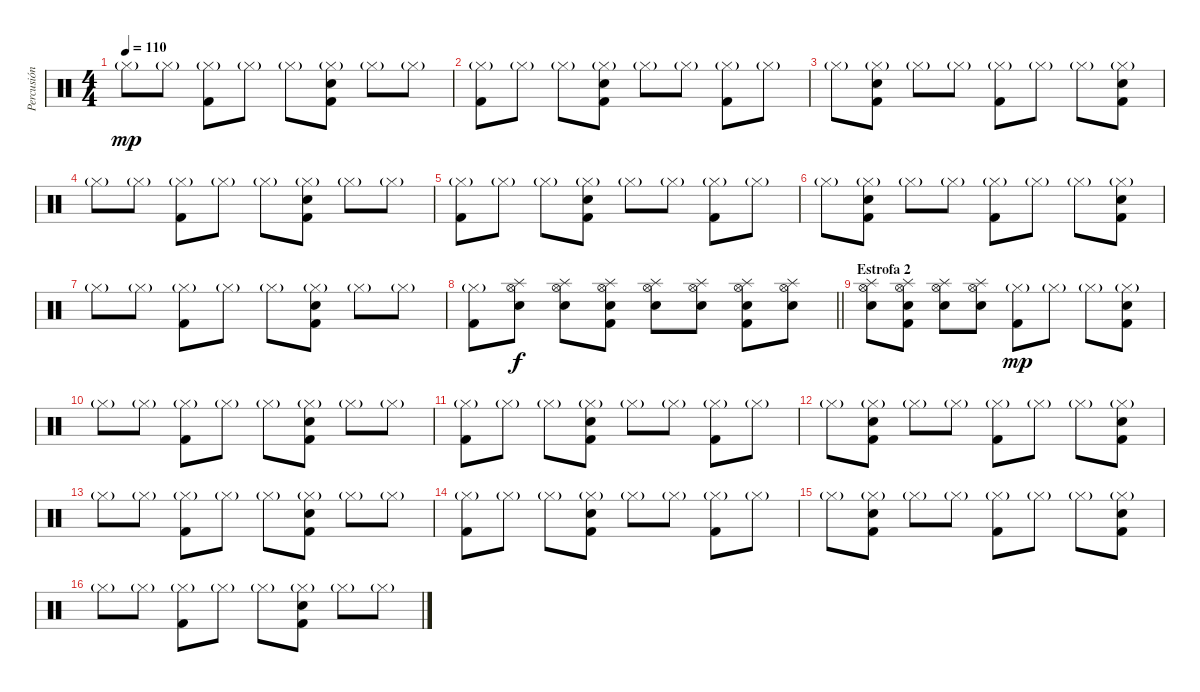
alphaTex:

\track ("Percusión" "Percusión") {instrument percussion}
\staff {score}
\articulation defaults
\ts (4 4)
\tempo 110
\clef neutral
\ks c "Hi-Hat (closed)"{g}.8{dy mp} "Hi-Hat (closed)"{g}.8
("Hi-Hat (closed)"{g} "Kick (hit) 2").8 "Hi-Hat (closed)"{g}.8 "Hi-Hat (closed)"{g}.8 ("Hi-Hat (closed)"{g} "Kick (hit) 2" "Snare (hit) 2").8 "Hi-Hat (closed)"{g}.8 "Hi-Hat (closed)"{g}.8 |
("Hi-Hat (closed)"{g} "Kick (hit) 2").8 "Hi-Hat (closed)"{g}.8 "Hi-Hat (closed)"{g}.8 ("Hi-Hat (closed)"{g} "Kick (hit) 2" "Snare (hit) 2").8 "Hi-Hat (closed)"{g}.8 "Hi-Hat (closed)"{g}.8 ("Hi-Hat (closed)"{g} "Kick (hit) 2").8 "Hi-Hat (closed)"{g}.8 |
"Hi-Hat (closed)"{g}.8 ("Hi-Hat (closed)"{g} "Kick (hit) 2" "Snare (hit) 2").8 "Hi-Hat (closed)"{g}.8 "Hi-Hat (closed)"{g}.8 ("Hi-Hat (closed)"{g} "Kick (hit) 2").8 "Hi-Hat (closed)"{g}.8 "Hi-Hat (closed)"{g}.8 ("Hi-Hat (closed)"{g} "Kick (hit) 2" "Snare (hit) 2").8 |
"Hi-Hat (closed)"{g}.8 "Hi-Hat (closed)"{g}.8 ("Hi-Hat (closed)"{g} "Kick (hit) 2").8 "Hi-Hat (closed)"{g}.8 "Hi-Hat (closed)"{g}.8 ("Hi-Hat (closed)"{g} "Kick (hit) 2" "Snare (hit) 2").8 "Hi-Hat (closed)"{g}.8 "Hi-Hat (closed)"{g}.8 |
("Hi-Hat (closed)"{g} "Kick (hit) 2").8 "Hi-Hat (closed)"{g}.8 "Hi-Hat (closed)"{g}.8 ("Hi-Hat (closed)"{g} "Kick (hit) 2" "Snare (hit) 2").8 "Hi-Hat (closed)"{g}.8 "Hi-Hat (closed)"{g}.8 ("Hi-Hat (closed)"{g} "Kick (hit) 2").8 "Hi-Hat (closed)"{g}.8 |
"Hi-Hat (closed)"{g}.8 ("Hi-Hat (closed)"{g} "Kick (hit) 2" "Snare (hit) 2").8 "Hi-Hat (closed)"{g}.8 "Hi-Hat (closed)"{g}.8 ("Hi-Hat (closed)"{g} "Kick (hit) 2").8 "Hi-Hat (closed)"{g}.8 "Hi-Hat (closed)"{g}.8 ("Hi-Hat (closed)"{g} "Kick (hit) 2" "Snare (hit) 2").8 |
"Hi-Hat (closed)"{g}.8 "Hi-Hat (closed)"{g}.8 ("Hi-Hat (closed)"{g} "Kick (hit) 2").8 "Hi-Hat (closed)"{g}.8 "Hi-Hat (closed)"{g}.8 ("Hi-Hat (closed)"{g} "Kick (hit) 2" "Snare (hit) 2").8 "Hi-Hat (closed)"{g}.8 "Hi-Hat (closed)"{g}.8 |
\barLineRight lightlight
("Hi-Hat (closed)"{g} "Kick (hit) 2").8 ("Hi-Hat (open)" "Splash (hit)" "Snare (hit) 2").8{dy f} ("Hi-Hat (open)" "Splash (hit)" "Snare (hit) 2").8 ("Hi-Hat (open)" "Kick (hit) 2" "Splash (hit)" "Snare (hit) 2").8 ("Hi-Hat (open)" "Splash (hit)" "Snare (hit) 2").8 ("Hi-Hat (open)" "Splash (hit)" "Snare (hit) 2").8 ("Hi-Hat (open)" "Kick (hit) 2" "Splash (hit)" "Snare (hit) 2").8 ("Hi-Hat (open)" "Splash (hit)" "Snare (hit) 2").8 |
\section ("" "Estrofa 2")
("Hi-Hat (open)" "Splash (hit)" "Snare (hit) 2").8 ("Hi-Hat (open)" "Kick (hit) 2" "Splash (hit)" "Snare (hit) 2").8 ("Hi-Hat (open)" "Splash (hit)" "Snare (hit) 2").8 ("Hi-Hat (open)" "Splash (hit)" "Snare (hit) 2").8 ("Hi-Hat (closed)"{g} "Kick (hit) 2").8{dy mp} "Hi-Hat (closed)"{g}.8 "Hi-Hat (closed)"{g}.8 ("Hi-Hat (closed)"{g} "Kick (hit) 2" "Snare (hit) 2").8 |
"Hi-Hat (closed)"{g}.8 "Hi-Hat (closed)"{g}.8 ("Hi-Hat (closed)"{g} "Kick (hit) 2").8 "Hi-Hat (closed)"{g}.8 "Hi-Hat (closed)"{g}.8 ("Hi-Hat (closed)"{g} "Kick (hit) 2" "Snare (hit) 2").8 "Hi-Hat (closed)"{g}.8 "Hi-Hat (closed)"{g}.8 |
("Hi-Hat (closed)"{g} "Kick (hit) 2").8 "Hi-Hat (closed)"{g}.8 "Hi-Hat (closed)"{g}.8 ("Hi-Hat (closed)"{g} "Kick (hit) 2" "Snare (hit) 2").8 "Hi-Hat (closed)"{g}.8 "Hi-Hat (closed)"{g}.8 ("Hi-Hat (closed)"{g} "Kick (hit) 2").8 "Hi-Hat (closed)"{g}.8 |
"Hi-Hat (closed)"{g}.8 ("Hi-Hat (closed)"{g} "Kick (hit) 2" "Snare (hit) 2").8 "Hi-Hat (closed)"{g}.8 "Hi-Hat (closed)"{g}.8 ("Hi-Hat (closed)"{g} "Kick (hit) 2").8 "Hi-Hat (closed)"{g}.8 "Hi-Hat (closed)"{g}.8 ("Hi-Hat (closed)"{g} "Kick (hit) 2" "Snare (hit) 2").8 |
"Hi-Hat (closed)"{g}.8 "Hi-Hat (closed)"{g}.8 ("Hi-Hat (closed)"{g} "Kick (hit) 2").8 "Hi-Hat (closed)"{g}.8 "Hi-Hat (closed)"{g}.8 ("Hi-Hat (closed)"{g} "Kick (hit) 2" "Snare (hit) 2").8 "Hi-Hat (closed)"{g}.8 "Hi-Hat (closed)"{g}.8 |
("Hi-Hat (closed)"{g} "Kick (hit) 2").8 "Hi-Hat (closed)"{g}.8 "Hi-Hat (closed)"{g}.8 ("Hi-Hat (closed)"{g} "Kick (hit) 2" "Snare (hit) 2").8 "Hi-Hat (closed)"{g}.8 "Hi-Hat (closed)"{g}.8 ("Hi-Hat (closed)"{g} "Kick (hit) 2").8 "Hi-Hat (closed)"{g}.8 |
"Hi-Hat (closed)"{g}.8 ("Hi-Hat (closed)"{g} "Kick (hit) 2" "Snare (hit) 2").8 "Hi-Hat (closed)"{g}.8 "Hi-Hat (closed)"{g}.8 ("Hi-Hat (closed)"{g} "Kick (hit) 2").8 "Hi-Hat (closed)"{g}.8 "Hi-Hat (closed)"{g}.8 ("Hi-Hat (closed)"{g} "Kick (hit) 2" "Snare (hit) 2").8 |
"Hi-Hat (closed)"{g}.8 "Hi-Hat (closed)"{g}.8 ("Hi-Hat (closed)"{g} "Kick (hit) 2").8 "Hi-Hat (closed)"{g}.8 "Hi-Hat (closed)"{g}.8 ("Hi-Hat (closed)"{g} "Kick (hit) 2" "Snare (hit) 2").8 "Hi-Hat (closed)"{g}.8 "Hi-Hat (closed)"{g}.8
